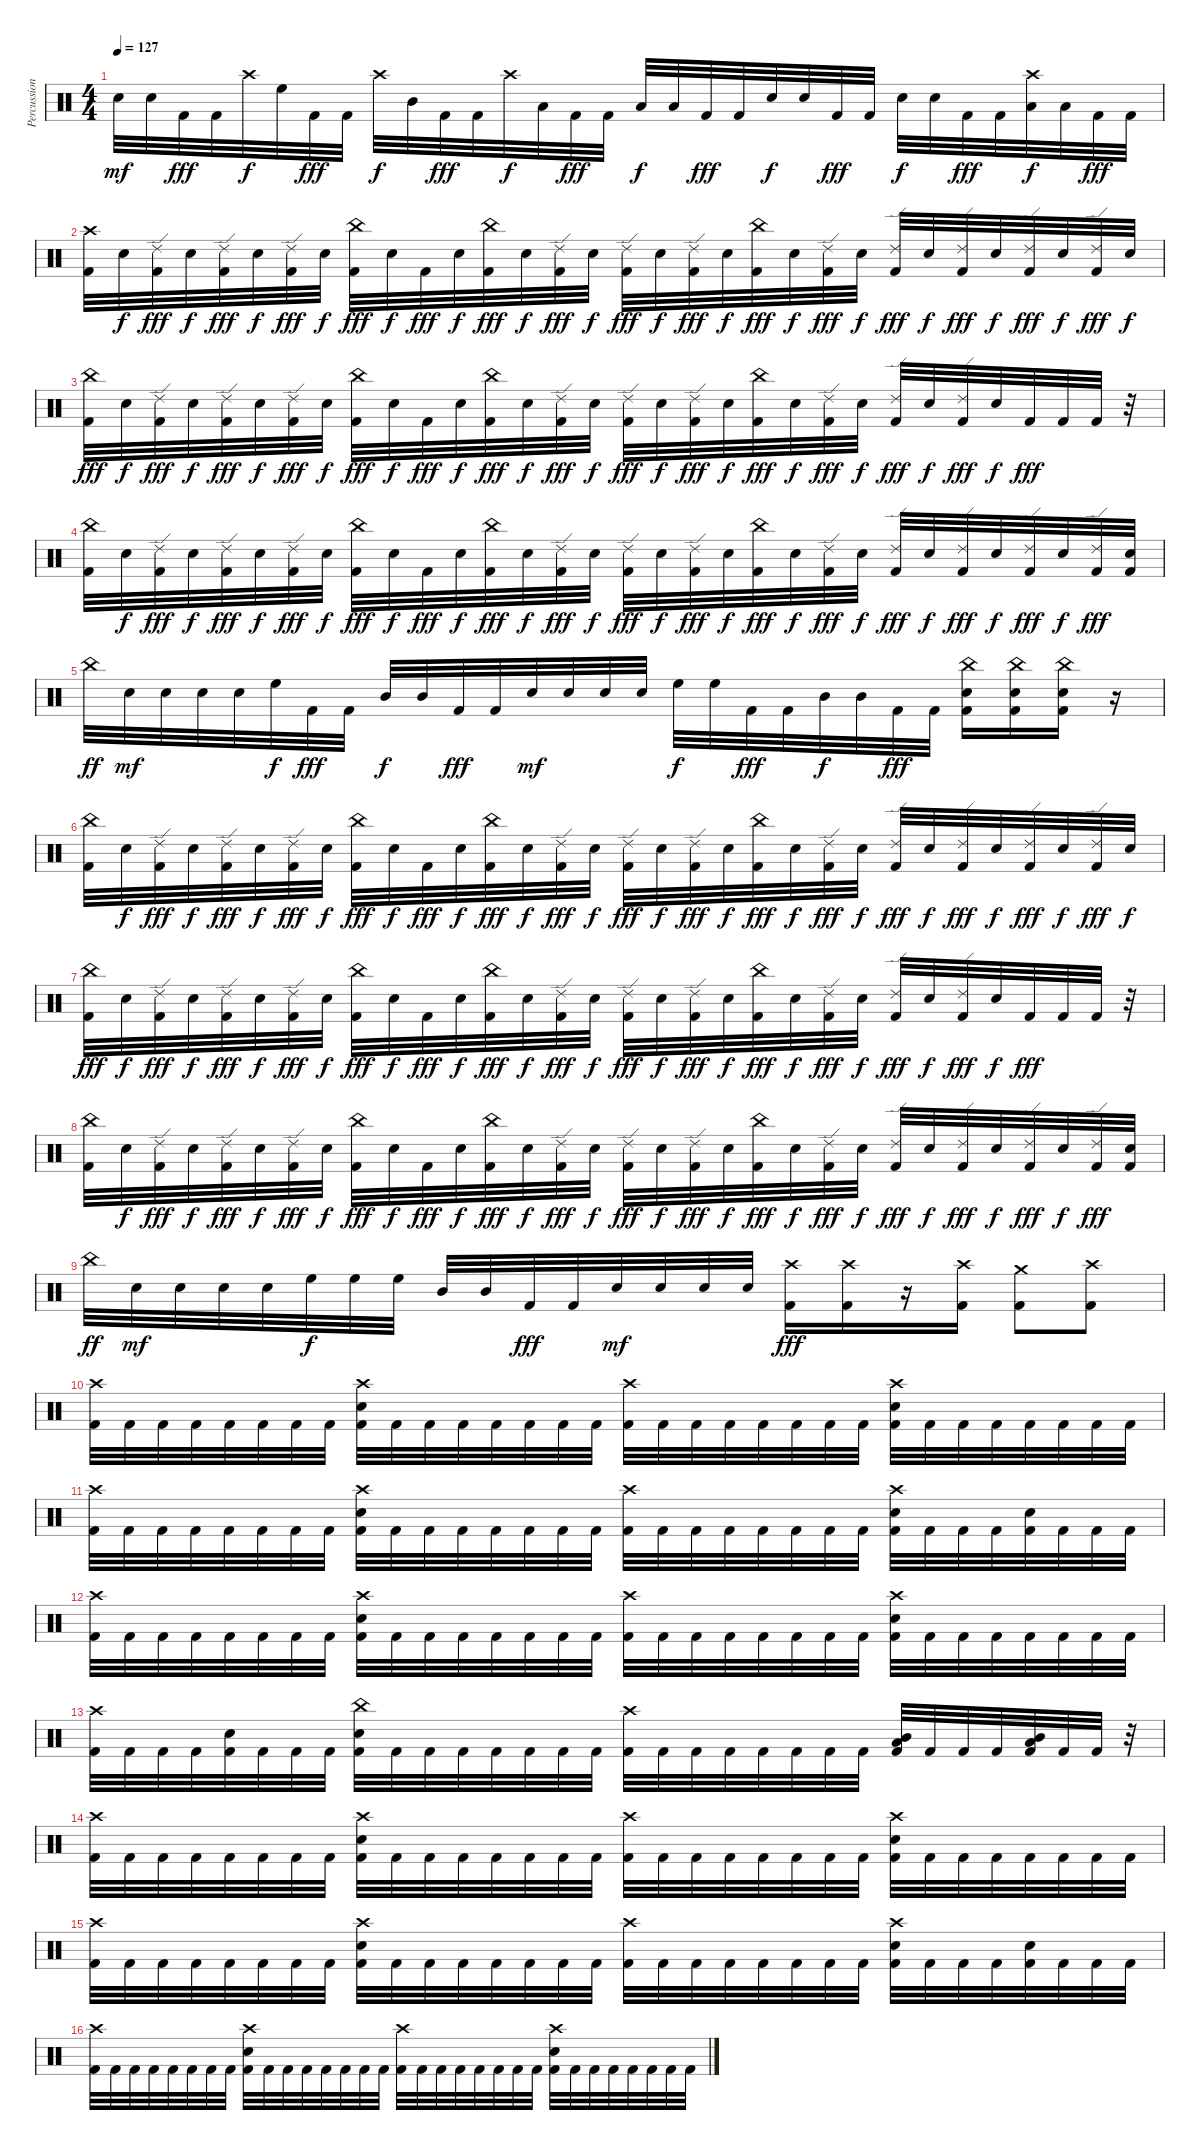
\track ("Percussion" "Percussion") {instrument percussion}
\staff {score}
\articulation defaults
\ts (4 4)
\tempo 127
\clef neutral
\ks c "Electric Snare (hit)".32{dy mf} "Electric Snare (hit)".32 "Kick (hit) 2".32{dy fff} "Kick (hit) 2".32 "Crash high (hit)".32{dy f} "High Floor Tom (hit)".32 "Kick (hit) 2".32{dy fff} "Kick (hit) 2".32 "Crash high (hit)".32{dy f} "Mid Tom (hit)".32 "Kick (hit) 2".32{dy fff} "Kick (hit) 2".32 "Crash high (hit)".32{dy f} "Low Tom (hit)".32 "Kick (hit) 2".32{dy fff} "Kick (hit) 2".32 "Low Tom (hit)".32{dy f} "Low Tom (hit)".32 "Kick (hit) 2".32{dy fff} "Kick (hit) 2".32 "Electric Snare (hit)".32{dy f} "Electric Snare (hit)".32 "Kick (hit) 2".32{dy fff} "Kick (hit) 2".32 "Electric Snare (hit)".32{dy f} "Electric Snare (hit)".32 "Kick (hit) 2".32{dy fff} "Kick (hit) 2".32
("Crash high (hit)" "Low Tom (hit)").32{dy f} "Low Tom (hit)".32 "Kick (hit) 2".32{dy fff} "Kick (hit) 2".32 |
("Crash high (hit)" "Kick (hit) 2").32 "Electric Snare (hit)".32{dy f} ("Ride (edge) 2" "Kick (hit) 2").32{dy fff} "Electric Snare (hit)".32{dy f} ("Ride (edge) 2" "Kick (hit) 2").32{dy fff} "Electric Snare (hit)".32{dy f} ("Ride (edge) 2" "Kick (hit) 2").32{dy fff} "Electric Snare (hit)".32{dy f} ("China (hit)" "Kick (hit) 2").32{dy fff} "Electric Snare (hit)".32{dy f} "Kick (hit) 2".32{dy fff} "Electric Snare (hit)".32{dy f} ("China (hit)" "Kick (hit) 2").32{dy fff} "Electric Snare (hit)".32{dy f} ("Ride (edge) 2" "Kick (hit) 2").32{dy fff} "Electric Snare (hit)".32{dy f} ("Ride (edge) 2" "Kick (hit) 2").32{dy fff} "Electric Snare (hit)".32{dy f} ("Ride (edge) 2" "Kick (hit) 2").32{dy fff} "Electric Snare (hit)".32{dy f} ("China (hit)" "Kick (hit) 2").32{dy fff} "Electric Snare (hit)".32{dy f} ("Ride (edge) 2" "Kick (hit) 2").32{dy fff} "Electric Snare (hit)".32{dy f} ("Ride (edge) 2" "Kick (hit) 2").32{dy fff} "Electric Snare (hit)".32{dy f} ("Ride (edge) 2" "Kick (hit) 2").32{dy fff} "Electric Snare (hit)".32{dy f} ("Ride (edge) 2" "Kick (hit) 2").32{dy fff} "Electric Snare (hit)".32{dy f} ("Ride (edge) 2" "Kick (hit) 2").32{dy fff} "Electric Snare (hit)".32{dy f} |
("China (hit)" "Kick (hit) 2").32{dy fff} "Electric Snare (hit)".32{dy f} ("Ride (edge) 2" "Kick (hit) 2").32{dy fff} "Electric Snare (hit)".32{dy f} ("Ride (edge) 2" "Kick (hit) 2").32{dy fff} "Electric Snare (hit)".32{dy f} ("Ride (edge) 2" "Kick (hit) 2").32{dy fff} "Electric Snare (hit)".32{dy f} ("China (hit)" "Kick (hit) 2").32{dy fff} "Electric Snare (hit)".32{dy f} "Kick (hit) 2".32{dy fff} "Electric Snare (hit)".32{dy f} ("China (hit)" "Kick (hit) 2").32{dy fff} "Electric Snare (hit)".32{dy f} ("Ride (edge) 2" "Kick (hit) 2").32{dy fff} "Electric Snare (hit)".32{dy f} ("Ride (edge) 2" "Kick (hit) 2").32{dy fff} "Electric Snare (hit)".32{dy f} ("Ride (edge) 2" "Kick (hit) 2").32{dy fff} "Electric Snare (hit)".32{dy f} ("China (hit)" "Kick (hit) 2").32{dy fff} "Electric Snare (hit)".32{dy f} ("Ride (edge) 2" "Kick (hit) 2").32{dy fff} "Electric Snare (hit)".32{dy f} ("Ride (edge) 2" "Kick (hit) 2").32{dy fff} "Electric Snare (hit)".32{dy f} ("Ride (edge) 2" "Kick (hit) 2").32{dy fff} "Electric Snare (hit)".32{dy f} "Kick (hit) 2".32{dy fff} "Kick (hit) 2".32 "Kick (hit) 2".32 r.32 |
("China (hit)" "Kick (hit) 2").32 "Electric Snare (hit)".32{dy f} ("Ride (edge) 2" "Kick (hit) 2").32{dy fff} "Electric Snare (hit)".32{dy f} ("Ride (edge) 2" "Kick (hit) 2").32{dy fff} "Electric Snare (hit)".32{dy f} ("Ride (edge) 2" "Kick (hit) 2").32{dy fff} "Electric Snare (hit)".32{dy f} ("China (hit)" "Kick (hit) 2").32{dy fff} "Electric Snare (hit)".32{dy f} "Kick (hit) 2".32{dy fff} "Electric Snare (hit)".32{dy f} ("China (hit)" "Kick (hit) 2").32{dy fff} "Electric Snare (hit)".32{dy f} ("Ride (edge) 2" "Kick (hit) 2").32{dy fff} "Electric Snare (hit)".32{dy f} ("Ride (edge) 2" "Kick (hit) 2").32{dy fff} "Electric Snare (hit)".32{dy f} ("Ride (edge) 2" "Kick (hit) 2").32{dy fff} "Electric Snare (hit)".32{dy f} ("China (hit)" "Kick (hit) 2").32{dy fff} "Electric Snare (hit)".32{dy f} ("Ride (edge) 2" "Kick (hit) 2").32{dy fff} "Electric Snare (hit)".32{dy f} ("Ride (edge) 2" "Kick (hit) 2").32{dy fff} "Electric Snare (hit)".32{dy f} ("Ride (edge) 2" "Kick (hit) 2").32{dy fff} "Electric Snare (hit)".32{dy f} ("Ride (edge) 2" "Kick (hit) 2").32{dy fff} "Electric Snare (hit)".32{dy f} ("Ride (edge) 2" "Kick (hit) 2").32{dy fff} ("Electric Snare (hit)" "Kick (hit) 2").32 |
"China (hit)".32{dy ff} "Electric Snare (hit)".32{dy mf} "Electric Snare (hit)".32 "Electric Snare (hit)".32 "Electric Snare (hit)".32 "High Floor Tom (hit)".32{dy f} "Kick (hit) 2".32{dy fff} "Kick (hit) 2".32 "Mid Tom (hit)".32{dy f} "Mid Tom (hit)".32 "Kick (hit) 2".32{dy fff} "Kick (hit) 2".32 "Electric Snare (hit)".32{dy mf} "Electric Snare (hit)".32 "Electric Snare (hit)".32 "Electric Snare (hit)".32 "High Floor Tom (hit)".32{dy f} "High Floor Tom (hit)".32 "Kick (hit) 2".32{dy fff} "Kick (hit) 2".32 "Mid Tom (hit)".32{dy f} "Mid Tom (hit)".32 "Kick (hit) 2".32{dy fff} "Kick (hit) 2".32 ("China (hit)" "Electric Snare (hit)" "Kick (hit) 2").16 ("China (hit)" "Electric Snare (hit)" "Kick (hit) 2").16 ("China (hit)" "Electric Snare (hit)" "Kick (hit) 2").16 r.16 |
("China (hit)" "Kick (hit) 2").32 "Electric Snare (hit)".32{dy f} ("Ride (edge) 2" "Kick (hit) 2").32{dy fff} "Electric Snare (hit)".32{dy f} ("Ride (edge) 2" "Kick (hit) 2").32{dy fff} "Electric Snare (hit)".32{dy f} ("Ride (edge) 2" "Kick (hit) 2").32{dy fff} "Electric Snare (hit)".32{dy f} ("China (hit)" "Kick (hit) 2").32{dy fff} "Electric Snare (hit)".32{dy f} "Kick (hit) 2".32{dy fff} "Electric Snare (hit)".32{dy f} ("China (hit)" "Kick (hit) 2").32{dy fff} "Electric Snare (hit)".32{dy f} ("Ride (edge) 2" "Kick (hit) 2").32{dy fff} "Electric Snare (hit)".32{dy f} ("Ride (edge) 2" "Kick (hit) 2").32{dy fff} "Electric Snare (hit)".32{dy f} ("Ride (edge) 2" "Kick (hit) 2").32{dy fff} "Electric Snare (hit)".32{dy f} ("China (hit)" "Kick (hit) 2").32{dy fff} "Electric Snare (hit)".32{dy f} ("Ride (edge) 2" "Kick (hit) 2").32{dy fff} "Electric Snare (hit)".32{dy f} ("Ride (edge) 2" "Kick (hit) 2").32{dy fff} "Electric Snare (hit)".32{dy f} ("Ride (edge) 2" "Kick (hit) 2").32{dy fff} "Electric Snare (hit)".32{dy f} ("Ride (edge) 2" "Kick (hit) 2").32{dy fff} "Electric Snare (hit)".32{dy f} ("Ride (edge) 2" "Kick (hit) 2").32{dy fff} "Electric Snare (hit)".32{dy f} |
("China (hit)" "Kick (hit) 2").32{dy fff} "Electric Snare (hit)".32{dy f} ("Ride (edge) 2" "Kick (hit) 2").32{dy fff} "Electric Snare (hit)".32{dy f} ("Ride (edge) 2" "Kick (hit) 2").32{dy fff} "Electric Snare (hit)".32{dy f} ("Ride (edge) 2" "Kick (hit) 2").32{dy fff} "Electric Snare (hit)".32{dy f} ("China (hit)" "Kick (hit) 2").32{dy fff} "Electric Snare (hit)".32{dy f} "Kick (hit) 2".32{dy fff} "Electric Snare (hit)".32{dy f} ("China (hit)" "Kick (hit) 2").32{dy fff} "Electric Snare (hit)".32{dy f} ("Ride (edge) 2" "Kick (hit) 2").32{dy fff} "Electric Snare (hit)".32{dy f} ("Ride (edge) 2" "Kick (hit) 2").32{dy fff} "Electric Snare (hit)".32{dy f} ("Ride (edge) 2" "Kick (hit) 2").32{dy fff} "Electric Snare (hit)".32{dy f} ("China (hit)" "Kick (hit) 2").32{dy fff} "Electric Snare (hit)".32{dy f} ("Ride (edge) 2" "Kick (hit) 2").32{dy fff} "Electric Snare (hit)".32{dy f} ("Ride (edge) 2" "Kick (hit) 2").32{dy fff} "Electric Snare (hit)".32{dy f} ("Ride (edge) 2" "Kick (hit) 2").32{dy fff} "Electric Snare (hit)".32{dy f} "Kick (hit) 2".32{dy fff} "Kick (hit) 2".32 "Kick (hit) 2".32 r.32 |
("China (hit)" "Kick (hit) 2").32 "Electric Snare (hit)".32{dy f} ("Ride (edge) 2" "Kick (hit) 2").32{dy fff} "Electric Snare (hit)".32{dy f} ("Ride (edge) 2" "Kick (hit) 2").32{dy fff} "Electric Snare (hit)".32{dy f} ("Ride (edge) 2" "Kick (hit) 2").32{dy fff} "Electric Snare (hit)".32{dy f} ("China (hit)" "Kick (hit) 2").32{dy fff} "Electric Snare (hit)".32{dy f} "Kick (hit) 2".32{dy fff} "Electric Snare (hit)".32{dy f} ("China (hit)" "Kick (hit) 2").32{dy fff} "Electric Snare (hit)".32{dy f} ("Ride (edge) 2" "Kick (hit) 2").32{dy fff} "Electric Snare (hit)".32{dy f} ("Ride (edge) 2" "Kick (hit) 2").32{dy fff} "Electric Snare (hit)".32{dy f} ("Ride (edge) 2" "Kick (hit) 2").32{dy fff} "Electric Snare (hit)".32{dy f} ("China (hit)" "Kick (hit) 2").32{dy fff} "Electric Snare (hit)".32{dy f} ("Ride (edge) 2" "Kick (hit) 2").32{dy fff} "Electric Snare (hit)".32{dy f} ("Ride (edge) 2" "Kick (hit) 2").32{dy fff} "Electric Snare (hit)".32{dy f} ("Ride (edge) 2" "Kick (hit) 2").32{dy fff} "Electric Snare (hit)".32{dy f} ("Ride (edge) 2" "Kick (hit) 2").32{dy fff} "Electric Snare (hit)".32{dy f} ("Ride (edge) 2" "Kick (hit) 2").32{dy fff} ("Electric Snare (hit)" "Kick (hit) 2").32 |
"China (hit)".32{dy ff} "Electric Snare (hit)".32{dy mf} "Electric Snare (hit)".32 "Electric Snare (hit)".32 "Electric Snare (hit)".32 "High Floor Tom (hit)".32{dy f} "High Floor Tom (hit)".32 "High Floor Tom (hit)".32 "Mid Tom (hit)".32 "Mid Tom (hit)".32 "Kick (hit) 2".32{dy fff} "Kick (hit) 2".32 "Electric Snare (hit)".32{dy mf} "Electric Snare (hit)".32 "Electric Snare (hit)".32 "Electric Snare (hit)".32 ("Crash high (hit)" "Kick (hit) 2").16{dy fff} ("Crash high (hit)" "Kick (hit) 2").16 r.16 ("Crash high (hit)" "Kick (hit) 2").16 ("Crash medium (hit)" "Kick (hit) 2").8 ("Crash high (hit)" "Kick (hit) 2").8 |
("Crash high (hit)" "Kick (hit) 2").32 "Kick (hit) 2".32 "Kick (hit) 2".32 "Kick (hit) 2".32 "Kick (hit) 2".32 "Kick (hit) 2".32 "Kick (hit) 2".32 "Kick (hit) 2".32 ("Crash high (hit)" "Electric Snare (hit)" "Kick (hit) 2").32 "Kick (hit) 2".32 "Kick (hit) 2".32 "Kick (hit) 2".32 "Kick (hit) 2".32 "Kick (hit) 2".32 "Kick (hit) 2".32 "Kick (hit) 2".32 ("Crash high (hit)" "Kick (hit) 2").32 "Kick (hit) 2".32 "Kick (hit) 2".32 "Kick (hit) 2".32 "Kick (hit) 2".32 "Kick (hit) 2".32 "Kick (hit) 2".32 "Kick (hit) 2".32 ("Crash high (hit)" "Electric Snare (hit)" "Kick (hit) 2").32 "Kick (hit) 2".32 "Kick (hit) 2".32 "Kick (hit) 2".32 "Kick (hit) 2".32 "Kick (hit) 2".32 "Kick (hit) 2".32 "Kick (hit) 2".32 |
("Crash high (hit)" "Kick (hit) 2").32 "Kick (hit) 2".32 "Kick (hit) 2".32 "Kick (hit) 2".32 "Kick (hit) 2".32 "Kick (hit) 2".32 "Kick (hit) 2".32 "Kick (hit) 2".32 ("Crash high (hit)" "Electric Snare (hit)" "Kick (hit) 2").32 "Kick (hit) 2".32 "Kick (hit) 2".32 "Kick (hit) 2".32 "Kick (hit) 2".32 "Kick (hit) 2".32 "Kick (hit) 2".32 "Kick (hit) 2".32 ("Crash high (hit)" "Kick (hit) 2").32 "Kick (hit) 2".32 "Kick (hit) 2".32 "Kick (hit) 2".32 "Kick (hit) 2".32 "Kick (hit) 2".32 "Kick (hit) 2".32 "Kick (hit) 2".32 ("Crash high (hit)" "Electric Snare (hit)" "Kick (hit) 2").32 "Kick (hit) 2".32 "Kick (hit) 2".32 "Kick (hit) 2".32 ("Electric Snare (hit)" "Kick (hit) 2").32 "Kick (hit) 2".32 "Kick (hit) 2".32 "Kick (hit) 2".32 |
("Crash high (hit)" "Kick (hit) 2").32 "Kick (hit) 2".32 "Kick (hit) 2".32 "Kick (hit) 2".32 "Kick (hit) 2".32 "Kick (hit) 2".32 "Kick (hit) 2".32 "Kick (hit) 2".32 ("Crash high (hit)" "Electric Snare (hit)" "Kick (hit) 2").32 "Kick (hit) 2".32 "Kick (hit) 2".32 "Kick (hit) 2".32 "Kick (hit) 2".32 "Kick (hit) 2".32 "Kick (hit) 2".32 "Kick (hit) 2".32 ("Crash high (hit)" "Kick (hit) 2").32 "Kick (hit) 2".32 "Kick (hit) 2".32 "Kick (hit) 2".32 "Kick (hit) 2".32 "Kick (hit) 2".32 "Kick (hit) 2".32 "Kick (hit) 2".32 ("Crash high (hit)" "Electric Snare (hit)" "Kick (hit) 2").32 "Kick (hit) 2".32 "Kick (hit) 2".32 "Kick (hit) 2".32 "Kick (hit) 2".32 "Kick (hit) 2".32 "Kick (hit) 2".32 "Kick (hit) 2".32 |
("Crash high (hit)" "Kick (hit) 2").32 "Kick (hit) 2".32 "Kick (hit) 2".32 "Kick (hit) 2".32 ("Electric Snare (hit)" "Kick (hit) 2").32 "Kick (hit) 2".32 "Kick (hit) 2".32 "Kick (hit) 2".32 ("China (hit)" "Electric Snare (hit)" "Kick (hit) 2").32 "Kick (hit) 2".32 "Kick (hit) 2".32 "Kick (hit) 2".32 "Kick (hit) 2".32 "Kick (hit) 2".32 "Kick (hit) 2".32 "Kick (hit) 2".32 ("Crash high (hit)" "Kick (hit) 2").32 "Kick (hit) 2".32 "Kick (hit) 2".32 "Kick (hit) 2".32 "Kick (hit) 2".32 "Kick (hit) 2".32 "Kick (hit) 2".32 "Kick (hit) 2".32 ("Low Tom (hit)" "Mid Tom (hit)" "Kick (hit) 2").32 "Kick (hit) 2".32 "Kick (hit) 2".32 "Kick (hit) 2".32 ("Low Tom (hit)" "Mid Tom (hit)" "Kick (hit) 2").32 "Kick (hit) 2".32 "Kick (hit) 2".32 r.32 |
("Crash high (hit)" "Kick (hit) 2").32 "Kick (hit) 2".32 "Kick (hit) 2".32 "Kick (hit) 2".32 "Kick (hit) 2".32 "Kick (hit) 2".32 "Kick (hit) 2".32 "Kick (hit) 2".32 ("Crash high (hit)" "Electric Snare (hit)" "Kick (hit) 2").32 "Kick (hit) 2".32 "Kick (hit) 2".32 "Kick (hit) 2".32 "Kick (hit) 2".32 "Kick (hit) 2".32 "Kick (hit) 2".32 "Kick (hit) 2".32 ("Crash high (hit)" "Kick (hit) 2").32 "Kick (hit) 2".32 "Kick (hit) 2".32 "Kick (hit) 2".32 "Kick (hit) 2".32 "Kick (hit) 2".32 "Kick (hit) 2".32 "Kick (hit) 2".32 ("Crash high (hit)" "Electric Snare (hit)" "Kick (hit) 2").32 "Kick (hit) 2".32 "Kick (hit) 2".32 "Kick (hit) 2".32 "Kick (hit) 2".32 "Kick (hit) 2".32 "Kick (hit) 2".32 "Kick (hit) 2".32 |
("Crash high (hit)" "Kick (hit) 2").32 "Kick (hit) 2".32 "Kick (hit) 2".32 "Kick (hit) 2".32 "Kick (hit) 2".32 "Kick (hit) 2".32 "Kick (hit) 2".32 "Kick (hit) 2".32 ("Crash high (hit)" "Electric Snare (hit)" "Kick (hit) 2").32 "Kick (hit) 2".32 "Kick (hit) 2".32 "Kick (hit) 2".32 "Kick (hit) 2".32 "Kick (hit) 2".32 "Kick (hit) 2".32 "Kick (hit) 2".32 ("Crash high (hit)" "Kick (hit) 2").32 "Kick (hit) 2".32 "Kick (hit) 2".32 "Kick (hit) 2".32 "Kick (hit) 2".32 "Kick (hit) 2".32 "Kick (hit) 2".32 "Kick (hit) 2".32 ("Crash high (hit)" "Electric Snare (hit)" "Kick (hit) 2").32 "Kick (hit) 2".32 "Kick (hit) 2".32 "Kick (hit) 2".32 ("Electric Snare (hit)" "Kick (hit) 2").32 "Kick (hit) 2".32 "Kick (hit) 2".32 "Kick (hit) 2".32 |
("Crash high (hit)" "Kick (hit) 2").32 "Kick (hit) 2".32 "Kick (hit) 2".32 "Kick (hit) 2".32 "Kick (hit) 2".32 "Kick (hit) 2".32 "Kick (hit) 2".32 "Kick (hit) 2".32 ("Crash high (hit)" "Electric Snare (hit)" "Kick (hit) 2").32 "Kick (hit) 2".32 "Kick (hit) 2".32 "Kick (hit) 2".32 "Kick (hit) 2".32 "Kick (hit) 2".32 "Kick (hit) 2".32 "Kick (hit) 2".32 ("Crash high (hit)" "Kick (hit) 2").32 "Kick (hit) 2".32 "Kick (hit) 2".32 "Kick (hit) 2".32 "Kick (hit) 2".32 "Kick (hit) 2".32 "Kick (hit) 2".32 "Kick (hit) 2".32 ("Crash high (hit)" "Electric Snare (hit)" "Kick (hit) 2").32 "Kick (hit) 2".32 "Kick (hit) 2".32 "Kick (hit) 2".32 "Kick (hit) 2".32 "Kick (hit) 2".32 "Kick (hit) 2".32 "Kick (hit) 2".32
